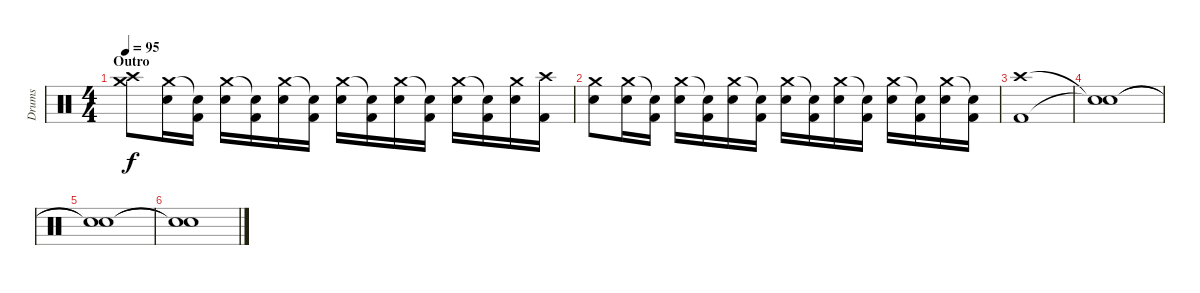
\track ("Drums" "Drums") {instrument percussion}
\staff {score}
\articulation defaults
\ts (4 4)
\section ("" "Outro")
\tempo 95
\clef neutral
\ks c
("Crash medium (hit)" "Crash high (hit)").8{dy f} ("Crash medium (hit)" "Electric Snare (hit)").16 ("Snare (hit)"{t} "Kick (hit) 2").16 ("Crash medium (hit)" "Electric Snare (hit)").16 ("Snare (hit)"{t} "Kick (hit) 2").16 ("Crash medium (hit)" "Electric Snare (hit)").16 ("Snare (hit)"{t} "Kick (hit) 2").16 ("Crash medium (hit)" "Electric Snare (hit)").16 ("Snare (hit)"{t} "Kick (hit) 2").16 ("Crash medium (hit)" "Electric Snare (hit)").16 ("Snare (hit)"{t} "Kick (hit) 2").16 ("Crash medium (hit)" "Electric Snare (hit)").16 ("Snare (hit)"{t} "Kick (hit) 2").16 ("Crash medium (hit)" "Electric Snare (hit)").16 ("Crash high (hit)" "Kick (hit) 2").16 |
("Crash medium (hit)" "Electric Snare (hit)").8 ("Crash medium (hit)" "Electric Snare (hit)").16 ("Snare (hit)"{t} "Kick (hit) 2").16 ("Crash medium (hit)" "Electric Snare (hit)").16 ("Snare (hit)"{t} "Kick (hit) 2").16 ("Crash medium (hit)" "Electric Snare (hit)").16 ("Snare (hit)"{t} "Kick (hit) 2").16 ("Crash medium (hit)" "Electric Snare (hit)").16 ("Snare (hit)"{t} "Kick (hit) 2").16 ("Crash medium (hit)" "Electric Snare (hit)").16 ("Snare (hit)"{t} "Kick (hit) 2").16 ("Crash medium (hit)" "Electric Snare (hit)").16 ("Snare (hit)"{t} "Kick (hit) 2").16 ("Crash medium (hit)" "Electric Snare (hit)").16 ("Snare (hit)"{t} "Kick (hit) 2").16 |
("Crash high (hit)" "Kick (hit) 2").1 |
("Snare (hit)"{t} "Snare (hit)"{t}).1 |
("Snare (hit)"{t} "Snare (hit)"{t}).1 |
("Snare (hit)"{t} "Snare (hit)"{t}).1
